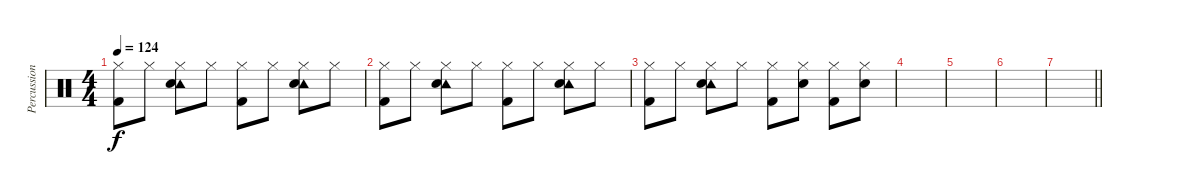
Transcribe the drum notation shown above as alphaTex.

\track ("Percussion" "Percussion") {instrument percussion}
\staff {score}
\articulation defaults
\ts (4 4)
\tempo 124
\clef neutral
\ks c
("Hi-Hat (closed)" "Kick (hit) 2").8{dy f} "Hi-Hat (closed)".8 ("Hi-Hat (closed)" "Tambourine (hit)" "Snare (hit) 2").8 "Hi-Hat (closed)".8 ("Hi-Hat (closed)" "Kick (hit) 2").8 "Hi-Hat (closed)".8 ("Hi-Hat (closed)" "Tambourine (hit)" "Snare (hit) 2").8 "Hi-Hat (closed)".8 |
("Hi-Hat (closed)" "Kick (hit) 2").8 "Hi-Hat (closed)".8 ("Hi-Hat (closed)" "Tambourine (hit)" "Snare (hit) 2").8 "Hi-Hat (closed)".8 ("Hi-Hat (closed)" "Kick (hit) 2").8 "Hi-Hat (closed)".8 ("Hi-Hat (closed)" "Tambourine (hit)" "Snare (hit) 2").8 "Hi-Hat (closed)".8 |
("Hi-Hat (closed)" "Kick (hit) 2").8 "Hi-Hat (closed)".8 ("Hi-Hat (closed)" "Tambourine (hit)" "Snare (hit) 2").8 "Hi-Hat (closed)".8 ("Hi-Hat (closed)" "Kick (hit) 2").8 ("Hi-Hat (closed)" "Snare (hit) 2").8 ("Hi-Hat (closed)" "Kick (hit) 2").8 ("Hi-Hat (closed)" "Snare (hit) 2").8 |
|
|
|
\barLineRight lightlight
